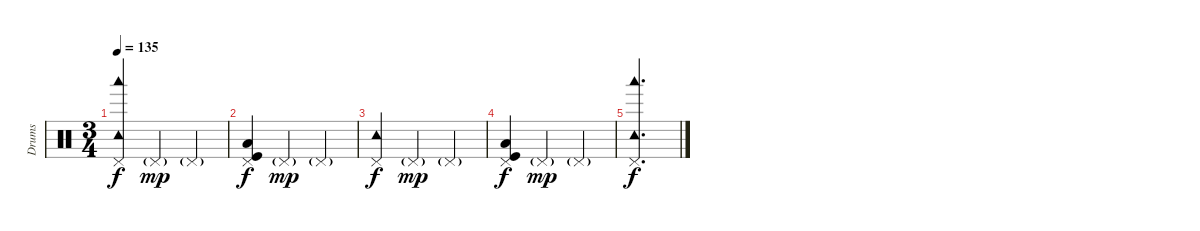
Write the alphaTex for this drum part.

\track ("Drums" "Drums") {instrument percussion}
\staff {score}
\articulation defaults
\ts (3 4)
\tempo 135
\clef neutral
\ks c
("Pedal Hi-Hat (hit)" "Woodblock low (hit)" "Tambourine (hit)").4{dy f} "Pedal Hi-Hat (hit)"{g}.4{dy mp} "Pedal Hi-Hat (hit)"{g}.4 |
("Pedal Hi-Hat (hit)" "Low Floor Tom (hit)" "Kick (hit)").4{dy f} "Pedal Hi-Hat (hit)"{g}.4{dy mp} "Pedal Hi-Hat (hit)"{g}.4 |
("Pedal Hi-Hat (hit)" "Tambourine (hit)").4{dy f} "Pedal Hi-Hat (hit)"{g}.4{dy mp} "Pedal Hi-Hat (hit)"{g}.4 |
("Pedal Hi-Hat (hit)" "Low Floor Tom (hit)" "Kick (hit)").4{dy f} "Pedal Hi-Hat (hit)"{g}.4{dy mp} "Pedal Hi-Hat (hit)"{g}.4 |
("Pedal Hi-Hat (hit)" "Woodblock low (hit)" "Tambourine (hit)").2{d dy f}
